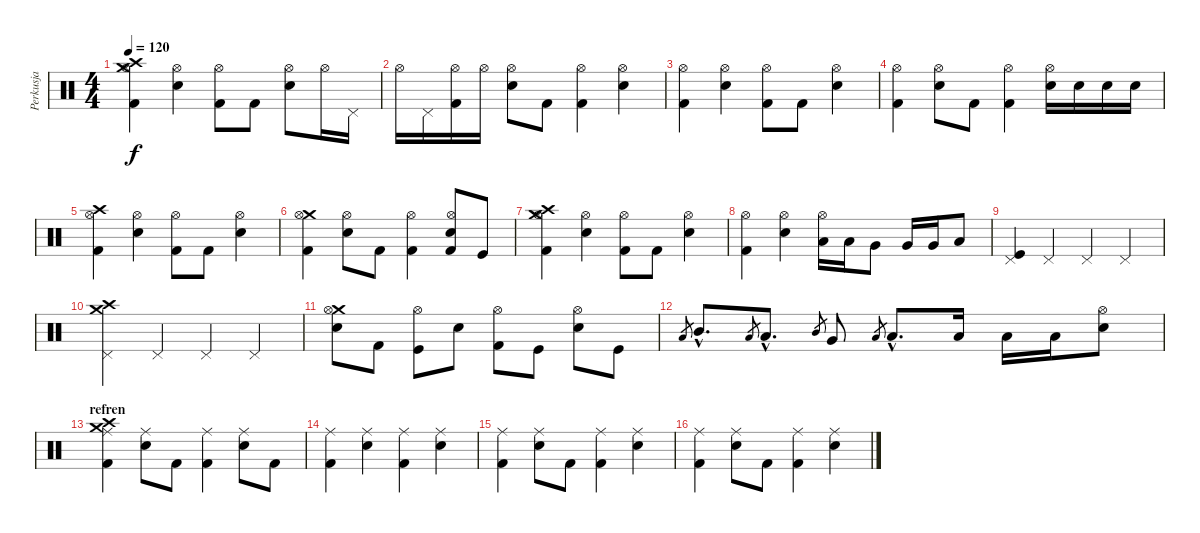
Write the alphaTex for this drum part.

\track ("Perkusja" "Perkusja") {instrument percussion}
\staff {score}
\articulation defaults
\ts (4 4)
\tempo 120
\clef neutral
\ks c
("Crash high (hit)" "Crash medium (hit)" "Kick (hit) 2" "Hi-Hat (open)").4{dy f} ("Snare (hit) 2" "Hi-Hat (open)").4 ("Kick (hit) 2" "Hi-Hat (open)").8 "Kick (hit) 2".8 ("Snare (hit) 2" "Hi-Hat (open)").8 "Hi-Hat (open)".16 "Pedal Hi-Hat (hit)".16 |
"Hi-Hat (open)".16 "Pedal Hi-Hat (hit)".16 ("Kick (hit) 2" "Hi-Hat (open)").16 "Hi-Hat (open)".16 ("Snare (hit) 2" "Hi-Hat (open)").8 "Kick (hit) 2".8 ("Kick (hit) 2" "Hi-Hat (open)").4 ("Snare (hit) 2" "Hi-Hat (open)").4 |
("Kick (hit) 2" "Hi-Hat (open)").4 ("Snare (hit) 2" "Hi-Hat (open)").4 ("Kick (hit) 2" "Hi-Hat (open)").8 "Kick (hit) 2".8 ("Snare (hit) 2" "Hi-Hat (open)").4 |
("Kick (hit) 2" "Hi-Hat (open)").4 ("Snare (hit) 2" "Hi-Hat (open)").8 "Kick (hit) 2".8 ("Kick (hit) 2" "Hi-Hat (open)").4 ("Snare (hit) 2" "Hi-Hat (open)").16 "Electric Snare (hit)".16 "Electric Snare (hit)".16 "Electric Snare (hit)".16 |
("Crash high (hit)" "Kick (hit) 2" "Hi-Hat (open)").4 ("Snare (hit) 2" "Hi-Hat (open)").4 ("Kick (hit) 2" "Hi-Hat (open)").8 "Kick (hit) 2".8 ("Snare (hit) 2" "Hi-Hat (open)").4 |
("Crash medium (hit)" "Kick (hit) 2" "Hi-Hat (open)").4 ("Snare (hit) 2" "Hi-Hat (open)").8 "Kick (hit) 2".8 ("Kick (hit) 2" "Hi-Hat (open)").4 ("Snare (hit) 2" "Kick (hit) 2" "Hi-Hat (open)").8 "Kick (hit)".8 |
("Crash high (hit)" "Crash medium (hit)" "Kick (hit) 2" "Hi-Hat (open)").4 ("Snare (hit) 2" "Hi-Hat (open)").4 ("Kick (hit) 2" "Hi-Hat (open)").8 "Kick (hit) 2".8 ("Snare (hit) 2" "Hi-Hat (open)").4 |
("Kick (hit) 2" "Hi-Hat (open)").4 ("Snare (hit) 2" "Hi-Hat (open)").4 ("Low Tom (hit)" "Hi-Hat (open)").16 "Low Tom (hit)".16 "Very Low Tom (hit)".8 "Very Low Tom (hit)".16 "Very Low Tom (hit)".16 "Low Floor Tom (hit)".8 |
("Kick (hit)" "Pedal Hi-Hat (hit)").4 "Pedal Hi-Hat (hit)".4 "Pedal Hi-Hat (hit)".4 "Pedal Hi-Hat (hit)".4 |
("Crash high (hit)" "Crash medium (hit)" "Pedal Hi-Hat (hit)").4 "Pedal Hi-Hat (hit)".4 "Pedal Hi-Hat (hit)".4 "Pedal Hi-Hat (hit)".4 |
("Crash medium (hit)" "Snare (hit) 2" "Hi-Hat (open)").8 "Kick (hit) 2".8 ("Kick (hit)" "Hi-Hat (open)").8 "Snare (hit) 2".8 ("Kick (hit) 2" "Hi-Hat (open)").8 "Kick (hit)".8 ("Snare (hit) 2" "Hi-Hat (open)").8 "Kick (hit)".8 |
"Low Tom (hit)".8{gr} "Mid Tom (hit)"{hac}.8{d} "Low Tom (hit)".8{gr} "Low Tom (hit)"{hac}.8{d} "Mid Tom (hit)".8{gr} "Very Low Tom (hit)".8 "Low Floor Tom (hit)".8{gr} "Low Floor Tom (hit)"{hac}.8{d} "Low Floor Tom (hit)".16 "Low Floor Tom (hit)".16 "Low Floor Tom (hit)".16 ("Snare (hit) 2" "Hi-Hat (open)").8 |
\section ("" "refren")
("Crash high (hit)" "Crash medium (hit)" "Kick (hit) 2" "Ride (middle)").4 ("Snare (hit) 2" "Ride (middle)").8 "Kick (hit) 2".8 ("Kick (hit) 2" "Ride (middle)").4 ("Snare (hit) 2" "Ride (middle)").8 "Kick (hit) 2".8 |
("Kick (hit) 2" "Ride (middle)").4 ("Snare (hit) 2" "Ride (middle)").4 ("Kick (hit) 2" "Ride (middle)").4 ("Snare (hit) 2" "Ride (middle)").4 |
("Kick (hit) 2" "Ride (middle)").4 ("Snare (hit) 2" "Ride (middle)").8 "Kick (hit) 2".8 ("Kick (hit) 2" "Ride (middle)").4 ("Snare (hit) 2" "Ride (middle)").4 |
("Kick (hit) 2" "Ride (middle)").4 ("Snare (hit) 2" "Ride (middle)").8 "Kick (hit) 2".8 ("Kick (hit) 2" "Ride (middle)").4 ("Snare (hit) 2" "Ride (middle)").4
